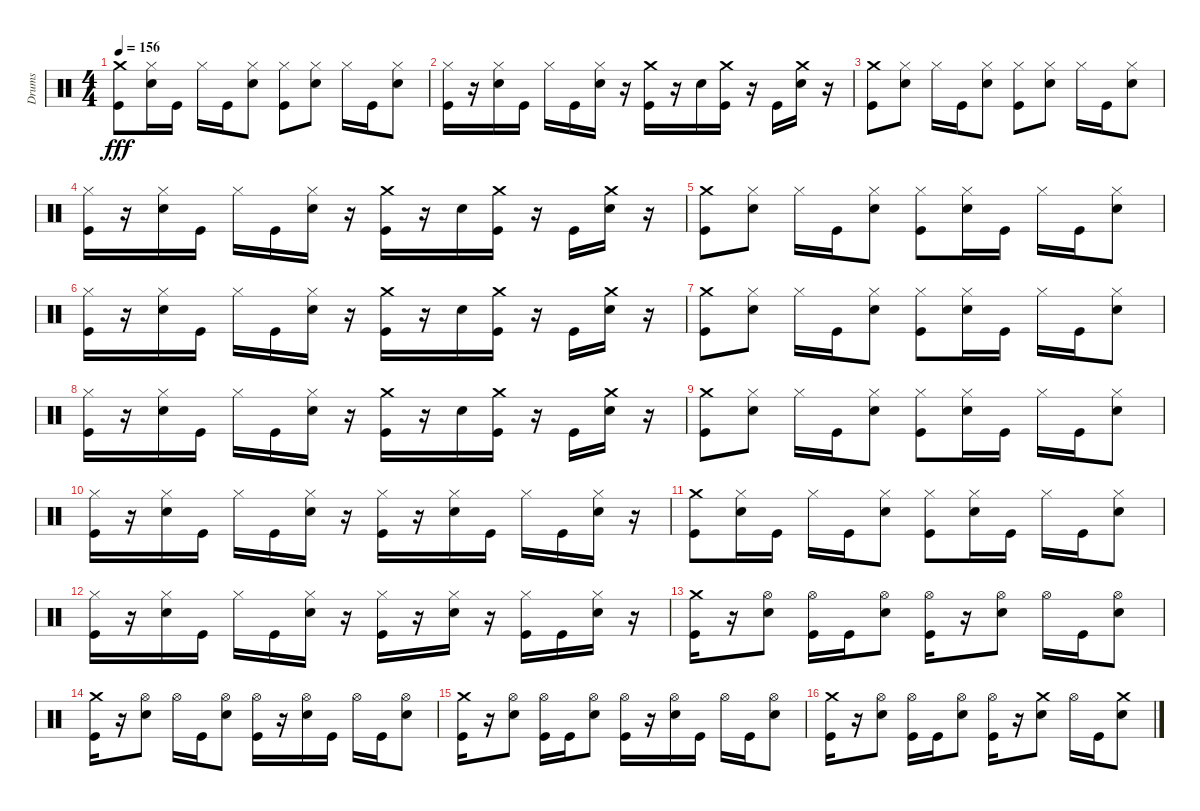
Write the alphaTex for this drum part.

\track ("Drums" "Drums") {instrument percussion}
\staff {score}
\articulation defaults
\ts (4 4)
\tempo 156
\clef neutral
\ks c
("Crash medium (hit)" "Kick (hit)").8{dy fff} ("Snare (hit) 2" "Hi-Hat (closed)").16 "Kick (hit)".16 "Hi-Hat (closed)".16 "Kick (hit)".16 ("Snare (hit) 2" "Hi-Hat (closed)").8 ("Kick (hit)" "Hi-Hat (closed)").8 ("Snare (hit) 2" "Hi-Hat (closed)").8 "Hi-Hat (closed)".16 "Kick (hit)".16 ("Snare (hit) 2" "Hi-Hat (closed)").8 |
("Hi-Hat (closed)" "Kick (hit)").16 r.16 ("Hi-Hat (closed)" "Snare (hit) 2").16 "Kick (hit)".16 "Hi-Hat (closed)".16 "Kick (hit)".16 ("Hi-Hat (closed)" "Snare (hit) 2").16 r.16 ("Crash medium (hit)" "Kick (hit)").16 r.16 "Snare (hit) 2".16 ("Crash medium (hit)" "Kick (hit)").16 r.16 "Kick (hit)".16 ("Crash medium (hit)" "Snare (hit) 2").16 r.16 |
("Crash medium (hit)" "Kick (hit)").8 ("Snare (hit) 2" "Hi-Hat (closed)").8 "Hi-Hat (closed)".16 "Kick (hit)".16 ("Snare (hit) 2" "Hi-Hat (closed)").8 ("Kick (hit)" "Hi-Hat (closed)").8 ("Snare (hit) 2" "Hi-Hat (closed)").8 "Hi-Hat (closed)".16 "Kick (hit)".16 ("Snare (hit) 2" "Hi-Hat (closed)").8 |
("Hi-Hat (closed)" "Kick (hit)").16 r.16 ("Hi-Hat (closed)" "Snare (hit) 2").16 "Kick (hit)".16 "Hi-Hat (closed)".16 "Kick (hit)".16 ("Hi-Hat (closed)" "Snare (hit) 2").16 r.16 ("Crash medium (hit)" "Kick (hit)").16 r.16 "Snare (hit) 2".16 ("Crash medium (hit)" "Kick (hit)").16 r.16 "Kick (hit)".16 ("Crash medium (hit)" "Snare (hit) 2").16 r.16 |
("Crash medium (hit)" "Kick (hit)").8 ("Snare (hit) 2" "Hi-Hat (closed)").8 "Hi-Hat (closed)".16 "Kick (hit)".16 ("Snare (hit) 2" "Hi-Hat (closed)").8 ("Kick (hit)" "Hi-Hat (closed)").8 ("Snare (hit) 2" "Hi-Hat (closed)").16 "Kick (hit)".16 "Hi-Hat (closed)".16 "Kick (hit)".16 ("Snare (hit) 2" "Hi-Hat (closed)").8 |
("Hi-Hat (closed)" "Kick (hit)").16 r.16 ("Hi-Hat (closed)" "Snare (hit) 2").16 "Kick (hit)".16 "Hi-Hat (closed)".16 "Kick (hit)".16 ("Hi-Hat (closed)" "Snare (hit) 2").16 r.16 ("Crash medium (hit)" "Kick (hit)").16 r.16 "Snare (hit) 2".16 ("Crash medium (hit)" "Kick (hit)").16 r.16 "Kick (hit)".16 ("Crash medium (hit)" "Snare (hit) 2").16 r.16 |
("Crash medium (hit)" "Kick (hit)").8 ("Snare (hit) 2" "Hi-Hat (closed)").8 "Hi-Hat (closed)".16 "Kick (hit)".16 ("Snare (hit) 2" "Hi-Hat (closed)").8 ("Kick (hit)" "Hi-Hat (closed)").8 ("Snare (hit) 2" "Hi-Hat (closed)").16 "Kick (hit)".16 "Hi-Hat (closed)".16 "Kick (hit)".16 ("Snare (hit) 2" "Hi-Hat (closed)").8 |
("Hi-Hat (closed)" "Kick (hit)").16 r.16 ("Hi-Hat (closed)" "Snare (hit) 2").16 "Kick (hit)".16 "Hi-Hat (closed)".16 "Kick (hit)".16 ("Hi-Hat (closed)" "Snare (hit) 2").16 r.16 ("Crash medium (hit)" "Kick (hit)").16 r.16 "Snare (hit) 2".16 ("Crash medium (hit)" "Kick (hit)").16 r.16 "Kick (hit)".16 ("Crash medium (hit)" "Snare (hit) 2").16 r.16 |
("Crash medium (hit)" "Kick (hit)").8 ("Snare (hit) 2" "Hi-Hat (closed)").8 "Hi-Hat (closed)".16 "Kick (hit)".16 ("Snare (hit) 2" "Hi-Hat (closed)").8 ("Kick (hit)" "Hi-Hat (closed)").8 ("Snare (hit) 2" "Hi-Hat (closed)").16 "Kick (hit)".16 "Hi-Hat (closed)".16 "Kick (hit)".16 ("Snare (hit) 2" "Hi-Hat (closed)").8 |
("Hi-Hat (closed)" "Kick (hit)").16 r.16 ("Hi-Hat (closed)" "Snare (hit) 2").16 "Kick (hit)".16 "Hi-Hat (closed)".16 "Kick (hit)".16 ("Hi-Hat (closed)" "Snare (hit) 2").16 r.16 ("Hi-Hat (closed)" "Kick (hit)").16 r.16 ("Hi-Hat (closed)" "Snare (hit) 2").16 "Kick (hit)".16 "Hi-Hat (closed)".16 "Kick (hit)".16 ("Hi-Hat (closed)" "Snare (hit) 2").16 r.16 |
("Crash medium (hit)" "Kick (hit)").8 ("Snare (hit) 2" "Hi-Hat (closed)").16 "Kick (hit)".16 "Hi-Hat (closed)".16 "Kick (hit)".16 ("Snare (hit) 2" "Hi-Hat (closed)").8 ("Kick (hit)" "Hi-Hat (closed)").8 ("Snare (hit) 2" "Hi-Hat (closed)").16 "Kick (hit)".16 "Hi-Hat (closed)".16 "Kick (hit)".16 ("Snare (hit) 2" "Hi-Hat (closed)").8 |
("Hi-Hat (closed)" "Kick (hit)").16 r.16 ("Hi-Hat (closed)" "Snare (hit) 2").16 "Kick (hit)".16 "Hi-Hat (closed)".16 "Kick (hit)".16 ("Hi-Hat (closed)" "Snare (hit) 2").16 r.16 ("Hi-Hat (closed)" "Kick (hit)").16 r.16 ("Hi-Hat (closed)" "Snare (hit) 2").16 r.16 ("Kick (hit)" "Hi-Hat (closed)").16 "Kick (hit)".16 ("Snare (hit) 2" "Hi-Hat (closed)").16 r.16 |
("Kick (hit)" "Crash medium (hit)").16 r.16 ("Snare (hit) 2" "Hi-Hat (open)").8 ("Kick (hit)" "Hi-Hat (open)").16 "Kick (hit)".16 ("Snare (hit) 2" "Hi-Hat (open)").8 ("Kick (hit)" "Hi-Hat (open)").16 r.16 ("Snare (hit) 2" "Hi-Hat (open)").8 "Hi-Hat (open)".16 "Kick (hit)".16 ("Snare (hit) 2" "Hi-Hat (open)").8 |
("Kick (hit)" "Crash medium (hit)").16 r.16 ("Snare (hit) 2" "Hi-Hat (open)").8 "Hi-Hat (open)".16 "Kick (hit)".16 ("Snare (hit) 2" "Hi-Hat (open)").8 ("Kick (hit)" "Hi-Hat (open)").16 r.16 ("Snare (hit) 2" "Hi-Hat (open)").16 "Kick (hit)".16 "Hi-Hat (open)".16 "Kick (hit)".16 ("Snare (hit) 2" "Hi-Hat (open)").8 |
("Kick (hit)" "Crash medium (hit)").16 r.16 ("Snare (hit) 2" "Hi-Hat (open)").8 ("Kick (hit)" "Hi-Hat (open)").16 "Kick (hit)".16 ("Snare (hit) 2" "Hi-Hat (open)").8 ("Kick (hit)" "Hi-Hat (open)").16 r.16 ("Snare (hit) 2" "Hi-Hat (open)").16 "Kick (hit)".16 "Hi-Hat (open)".16 "Kick (hit)".16 ("Snare (hit) 2" "Hi-Hat (open)").8 |
("Kick (hit)" "Crash medium (hit)").16 r.16 ("Snare (hit) 2" "Hi-Hat (open)").8 ("Kick (hit)" "Hi-Hat (open)").16 "Kick (hit)".16 ("Snare (hit) 2" "Hi-Hat (open)").8 ("Kick (hit)" "Hi-Hat (open)").16 r.16 ("Crash medium (hit)" "Snare (hit) 2").8 "Hi-Hat (open)".16 "Kick (hit)".16 ("Crash medium (hit)" "Snare (hit) 2").8
